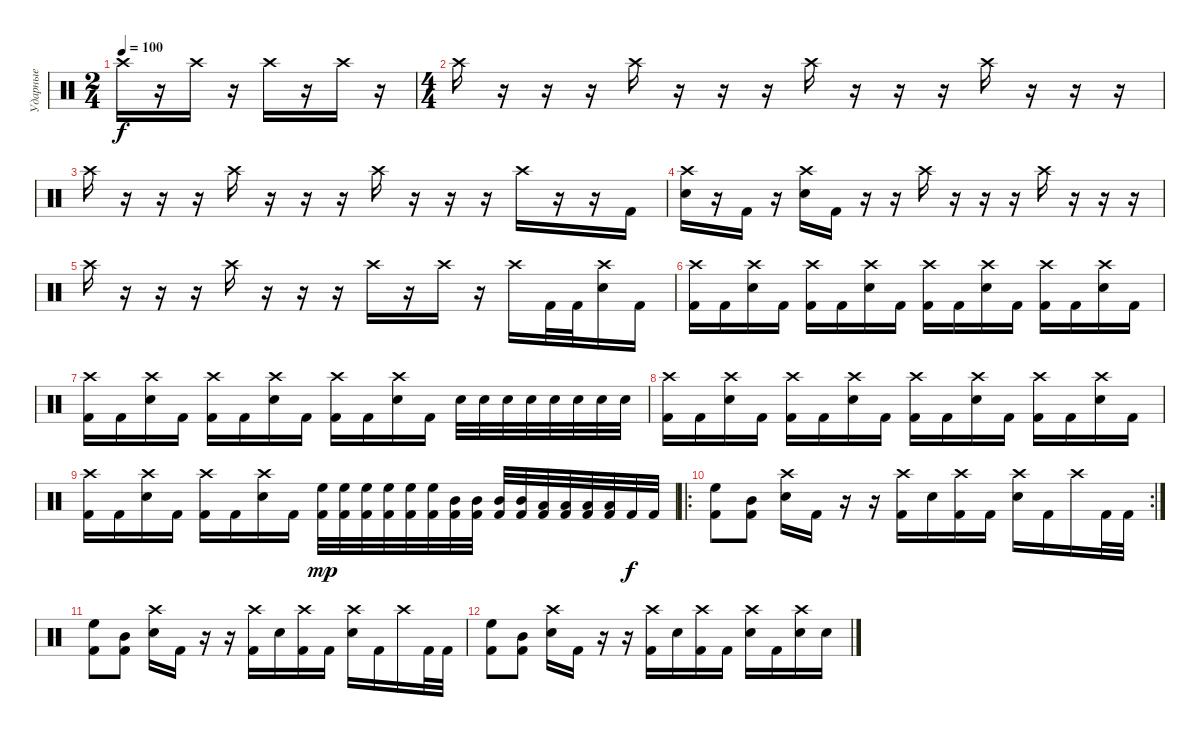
\track ("Ударные" "Ударные") {instrument percussion}
\staff {score}
\articulation defaults
\ts (2 4)
\tempo 100
\clef neutral
\ks c "Crash high (hit)".16{dy f}
r.16 "Crash high (hit)".16 r.16 "Crash high (hit)".16 r.16 "Crash high (hit)".16 r.16 |
\ts (4 4)
"Crash high (hit)".16 r.16 r.16 r.16 "Crash high (hit)".16 r.16 r.16 r.16 "Crash high (hit)".16 r.16 r.16 r.16 "Crash high (hit)".16 r.16 r.16 r.16 |
"Crash high (hit)".16 r.16 r.16 r.16 "Crash high (hit)".16 r.16 r.16 r.16 "Crash high (hit)".16 r.16 r.16 r.16 "Crash high (hit)".16 r.16 r.16 "Kick (hit) 2".16 |
("Crash high (hit)" "Snare (hit) 2").16 r.16 "Kick (hit) 2".16 r.16 ("Crash high (hit)" "Snare (hit) 2").16 "Kick (hit) 2".16 r.16 r.16 "Crash high (hit)".16 r.16 r.16 r.16 "Crash high (hit)".16 r.16 r.16 r.16 |
"Crash high (hit)".16 r.16 r.16 r.16 "Crash high (hit)".16 r.16 r.16 r.16 "Crash high (hit)".16 r.16 "Crash high (hit)".16 r.16 "Crash high (hit)".16 "Kick (hit) 2".32 "Kick (hit) 2".32 ("Crash high (hit)" "Snare (hit) 2").16 "Kick (hit) 2".16 |
("Crash high (hit)" "Kick (hit) 2").16 "Kick (hit) 2".16 ("Crash high (hit)" "Snare (hit) 2").16 "Kick (hit) 2".16 ("Crash high (hit)" "Kick (hit) 2").16 "Kick (hit) 2".16 ("Crash high (hit)" "Snare (hit) 2").16 "Kick (hit) 2".16 ("Crash high (hit)" "Kick (hit) 2").16 "Kick (hit) 2".16 ("Crash high (hit)" "Snare (hit) 2").16 "Kick (hit) 2".16 ("Crash high (hit)" "Kick (hit) 2").16 "Kick (hit) 2".16 ("Crash high (hit)" "Snare (hit) 2").16 "Kick (hit) 2".16 |
("Crash high (hit)" "Kick (hit) 2").16 "Kick (hit) 2".16 ("Crash high (hit)" "Snare (hit) 2").16 "Kick (hit) 2".16 ("Crash high (hit)" "Kick (hit) 2").16 "Kick (hit) 2".16 ("Crash high (hit)" "Snare (hit) 2").16 "Kick (hit) 2".16 ("Crash high (hit)" "Kick (hit) 2").16 "Kick (hit) 2".16 ("Crash high (hit)" "Snare (hit) 2").16 "Kick (hit) 2".16 "Snare (hit) 2".32 "Snare (hit) 2".32 "Snare (hit) 2".32 "Snare (hit) 2".32 "Snare (hit) 2".32 "Snare (hit) 2".32 "Snare (hit) 2".32 "Snare (hit) 2".32 |
("Crash high (hit)" "Kick (hit) 2").16 "Kick (hit) 2".16 ("Crash high (hit)" "Snare (hit) 2").16 "Kick (hit) 2".16 ("Crash high (hit)" "Kick (hit) 2").16 "Kick (hit) 2".16 ("Crash high (hit)" "Snare (hit) 2").16 "Kick (hit) 2".16 ("Crash high (hit)" "Kick (hit) 2").16 "Kick (hit) 2".16 ("Crash high (hit)" "Snare (hit) 2").16 "Kick (hit) 2".16 ("Crash high (hit)" "Kick (hit) 2").16 "Kick (hit) 2".16 ("Crash high (hit)" "Snare (hit) 2").16 "Kick (hit) 2".16 |
("Crash high (hit)" "Kick (hit) 2").16 "Kick (hit) 2".16 ("Crash high (hit)" "Snare (hit) 2").16 "Kick (hit) 2".16 ("Crash high (hit)" "Kick (hit) 2").16 "Kick (hit) 2".16 ("Crash high (hit)" "Snare (hit) 2").16 "Kick (hit) 2".16 ("Kick (hit) 2" "High Floor Tom (hit)").32{dy mp} ("Kick (hit) 2" "High Floor Tom (hit)").32 ("Kick (hit) 2" "High Floor Tom (hit)").32 ("Kick (hit) 2" "High Floor Tom (hit)").32 ("Kick (hit) 2" "High Floor Tom (hit)").32 ("Kick (hit) 2" "High Floor Tom (hit)").32 ("Kick (hit) 2" "Mid Tom (hit)").32 ("Kick (hit) 2" "Mid Tom (hit)").32 ("Kick (hit) 2" "Mid Tom (hit)").32 ("Kick (hit) 2" "Mid Tom (hit)").32 ("Kick (hit) 2" "Low Tom (hit)").32 ("Kick (hit) 2" "Low Tom (hit)").32 ("Kick (hit) 2" "Low Tom (hit)").32 ("Kick (hit) 2" "Low Tom (hit)").32 "Kick (hit) 2".32{dy f} "Kick (hit) 2".32 |
\ro
\rc 2
("High Floor Tom (hit)" "Kick (hit) 2").8 ("Mid Tom (hit)" "Kick (hit) 2").8 ("Crash high (hit)" "Snare (hit) 2").16 "Kick (hit) 2".16 r.16 r.16 ("Crash high (hit)" "Kick (hit) 2").16 "Snare (hit) 2".16 ("Crash high (hit)" "Kick (hit) 2").16 "Kick (hit) 2".16 ("Crash high (hit)" "Snare (hit) 2").16 "Kick (hit) 2".16 "Crash high (hit)".16 "Kick (hit) 2".32 "Kick (hit) 2".32 |
("High Floor Tom (hit)" "Kick (hit) 2").8 ("Mid Tom (hit)" "Kick (hit) 2").8 ("Crash high (hit)" "Snare (hit) 2").16 "Kick (hit) 2".16 r.16 r.16 ("Crash high (hit)" "Kick (hit) 2").16 "Snare (hit) 2".16 ("Crash high (hit)" "Kick (hit) 2").16 "Kick (hit) 2".16 ("Crash high (hit)" "Snare (hit) 2").16 "Kick (hit) 2".16 "Crash high (hit)".16 "Kick (hit) 2".32 "Kick (hit) 2".32 |
("High Floor Tom (hit)" "Kick (hit) 2").8 ("Mid Tom (hit)" "Kick (hit) 2").8 ("Crash high (hit)" "Snare (hit) 2").16 "Kick (hit) 2".16 r.16 r.16 ("Crash high (hit)" "Kick (hit) 2").16 "Snare (hit) 2".16 ("Crash high (hit)" "Kick (hit) 2").16 "Kick (hit) 2".16 ("Crash high (hit)" "Snare (hit) 2").16 "Kick (hit) 2".16 ("Crash high (hit)" "Snare (hit) 2").16 "Snare (hit) 2".16
